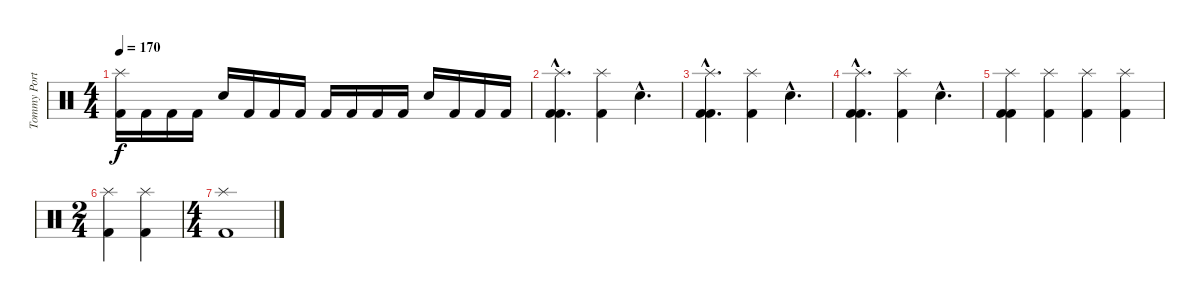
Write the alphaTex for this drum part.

\track ("Tommy Portimo" "Tommy Port") {instrument percussion}
\staff {score}
\articulation defaults
\ts (4 4)
\tempo 170
\clef neutral
\ks c
("Splash (hit)" "Kick (hit) 2").16{dy f} "Kick (hit) 2".16 "Kick (hit) 2".16 "Kick (hit) 2".16 "Electric Snare (hit)".16 "Kick (hit) 2".16 "Kick (hit) 2".16 "Kick (hit) 2".16 "Kick (hit) 2".16 "Kick (hit) 2".16 "Kick (hit) 2".16 "Kick (hit) 2".16 "Electric Snare (hit)".16 "Kick (hit) 2".16 "Kick (hit) 2".16 "Kick (hit) 2".16 |
("Splash (hit)"{hac} "Kick (hit) 2"{hac} "Kick (hit) 2"{hac}).4{d} ("Splash (hit)" "Kick (hit) 2").4 "Snare (hit)"{hac}.4{d} |
("Splash (hit)"{hac} "Kick (hit) 2"{hac} "Kick (hit) 2"{hac}).4{d} ("Splash (hit)" "Kick (hit) 2").4 "Snare (hit)"{hac}.4{d} |
("Splash (hit)"{hac} "Kick (hit) 2"{hac} "Kick (hit) 2"{hac}).4{d} ("Splash (hit)" "Kick (hit) 2").4 "Snare (hit)"{hac}.4{d} |
("Splash (hit)" "Kick (hit) 2" "Kick (hit) 2").4 ("Splash (hit)" "Kick (hit) 2").4 ("Splash (hit)" "Kick (hit) 2").4 ("Kick (hit) 2" "Splash (hit)").4 |
\ts (2 4)
("Splash (hit)" "Kick (hit) 2").4 ("Splash (hit)" "Kick (hit) 2").4 |
\ts (4 4)
("Splash (hit)" "Kick (hit) 2").1
